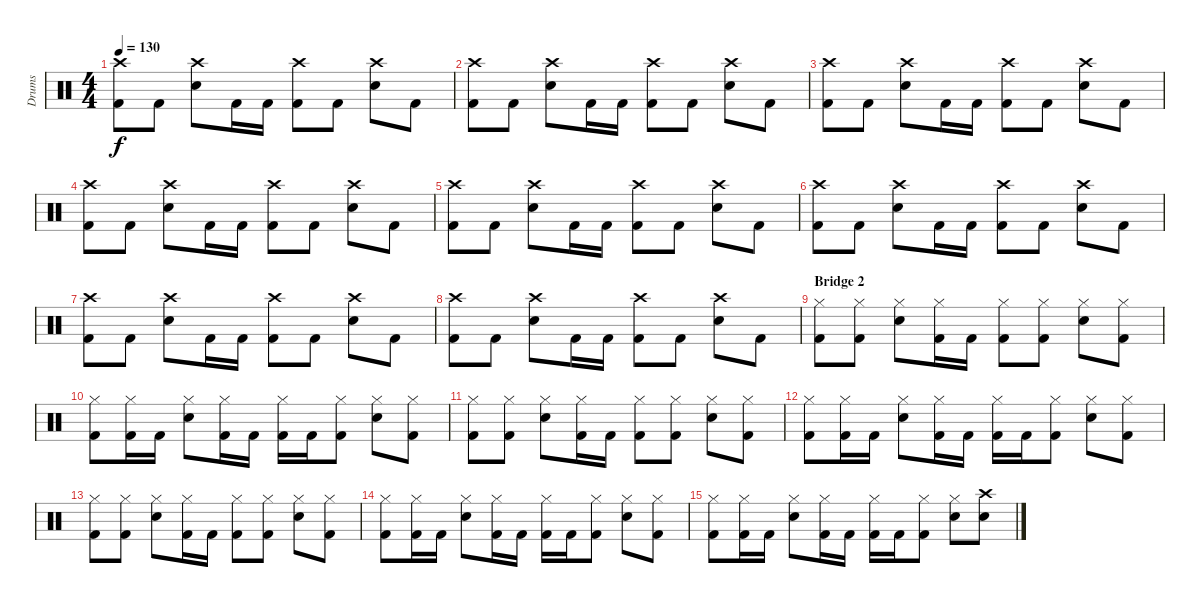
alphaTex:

\track ("Drums" "Drums") {instrument percussion}
\staff {score}
\articulation defaults
\ts (4 4)
\tempo 130
\clef neutral
\ks c
("Crash high (hit)" "Kick (hit) 2").8{dy f} "Kick (hit) 2".8 ("Crash high (hit)" "Electric Snare (hit)").8 "Kick (hit) 2".16 "Kick (hit) 2".16 ("Crash high (hit)" "Kick (hit) 2").8 "Kick (hit) 2".8 ("Crash high (hit)" "Electric Snare (hit)").8 "Kick (hit) 2".8 |
("Crash high (hit)" "Kick (hit) 2").8 "Kick (hit) 2".8 ("Crash high (hit)" "Electric Snare (hit)").8 "Kick (hit) 2".16 "Kick (hit) 2".16 ("Crash high (hit)" "Kick (hit) 2").8 "Kick (hit) 2".8 ("Crash high (hit)" "Electric Snare (hit)").8 "Kick (hit) 2".8 |
("Crash high (hit)" "Kick (hit) 2").8 "Kick (hit) 2".8 ("Crash high (hit)" "Electric Snare (hit)").8 "Kick (hit) 2".16 "Kick (hit) 2".16 ("Crash high (hit)" "Kick (hit) 2").8 "Kick (hit) 2".8 ("Crash high (hit)" "Electric Snare (hit)").8 "Kick (hit) 2".8 |
("Crash high (hit)" "Kick (hit) 2").8 "Kick (hit) 2".8 ("Crash high (hit)" "Electric Snare (hit)").8 "Kick (hit) 2".16 "Kick (hit) 2".16 ("Crash high (hit)" "Kick (hit) 2").8 "Kick (hit) 2".8 ("Crash high (hit)" "Electric Snare (hit)").8 "Kick (hit) 2".8 |
("Crash high (hit)" "Kick (hit) 2").8 "Kick (hit) 2".8 ("Crash high (hit)" "Electric Snare (hit)").8 "Kick (hit) 2".16 "Kick (hit) 2".16 ("Crash high (hit)" "Kick (hit) 2").8 "Kick (hit) 2".8 ("Crash high (hit)" "Electric Snare (hit)").8 "Kick (hit) 2".8 |
("Crash high (hit)" "Kick (hit) 2").8 "Kick (hit) 2".8 ("Crash high (hit)" "Electric Snare (hit)").8 "Kick (hit) 2".16 "Kick (hit) 2".16 ("Crash high (hit)" "Kick (hit) 2").8 "Kick (hit) 2".8 ("Crash high (hit)" "Electric Snare (hit)").8 "Kick (hit) 2".8 |
("Crash high (hit)" "Kick (hit) 2").8 "Kick (hit) 2".8 ("Crash high (hit)" "Electric Snare (hit)").8 "Kick (hit) 2".16 "Kick (hit) 2".16 ("Crash high (hit)" "Kick (hit) 2").8 "Kick (hit) 2".8 ("Crash high (hit)" "Electric Snare (hit)").8 "Kick (hit) 2".8 |
("Crash high (hit)" "Kick (hit) 2").8 "Kick (hit) 2".8 ("Crash high (hit)" "Electric Snare (hit)").8 "Kick (hit) 2".16 "Kick (hit) 2".16 ("Crash high (hit)" "Kick (hit) 2").8 "Kick (hit) 2".8 ("Crash high (hit)" "Electric Snare (hit)").8 "Kick (hit) 2".8 |
\section ("" "Bridge 2")
("Hi-Hat (closed)" "Kick (hit) 2").8 ("Hi-Hat (closed)" "Kick (hit) 2").8 ("Hi-Hat (closed)" "Electric Snare (hit)").8 ("Hi-Hat (closed)" "Kick (hit) 2").16 "Kick (hit) 2".16 ("Hi-Hat (closed)" "Kick (hit) 2").8 ("Hi-Hat (closed)" "Kick (hit) 2").8 ("Hi-Hat (closed)" "Electric Snare (hit)").8 ("Hi-Hat (closed)" "Kick (hit) 2").8 |
("Hi-Hat (closed)" "Kick (hit) 2").8 ("Hi-Hat (closed)" "Kick (hit) 2").16 "Kick (hit) 2".16 ("Hi-Hat (closed)" "Electric Snare (hit)").8 ("Hi-Hat (closed)" "Kick (hit) 2").16 "Kick (hit) 2".16 ("Hi-Hat (closed)" "Kick (hit) 2").16 "Kick (hit) 2".16 ("Hi-Hat (closed)" "Kick (hit) 2").8 ("Hi-Hat (closed)" "Electric Snare (hit)").8 ("Hi-Hat (closed)" "Kick (hit) 2").8 |
("Hi-Hat (closed)" "Kick (hit) 2").8 ("Hi-Hat (closed)" "Kick (hit) 2").8 ("Hi-Hat (closed)" "Electric Snare (hit)").8 ("Hi-Hat (closed)" "Kick (hit) 2").16 "Kick (hit) 2".16 ("Hi-Hat (closed)" "Kick (hit) 2").8 ("Hi-Hat (closed)" "Kick (hit) 2").8 ("Hi-Hat (closed)" "Electric Snare (hit)").8 ("Hi-Hat (closed)" "Kick (hit) 2").8 |
("Hi-Hat (closed)" "Kick (hit) 2").8 ("Hi-Hat (closed)" "Kick (hit) 2").16 "Kick (hit) 2".16 ("Hi-Hat (closed)" "Electric Snare (hit)").8 ("Hi-Hat (closed)" "Kick (hit) 2").16 "Kick (hit) 2".16 ("Hi-Hat (closed)" "Kick (hit) 2").16 "Kick (hit) 2".16 ("Hi-Hat (closed)" "Kick (hit) 2").8 ("Hi-Hat (closed)" "Electric Snare (hit)").8 ("Hi-Hat (closed)" "Kick (hit) 2").8 |
("Hi-Hat (closed)" "Kick (hit) 2").8 ("Hi-Hat (closed)" "Kick (hit) 2").8 ("Hi-Hat (closed)" "Electric Snare (hit)").8 ("Hi-Hat (closed)" "Kick (hit) 2").16 "Kick (hit) 2".16 ("Hi-Hat (closed)" "Kick (hit) 2").8 ("Hi-Hat (closed)" "Kick (hit) 2").8 ("Hi-Hat (closed)" "Electric Snare (hit)").8 ("Hi-Hat (closed)" "Kick (hit) 2").8 |
("Hi-Hat (closed)" "Kick (hit) 2").8 ("Hi-Hat (closed)" "Kick (hit) 2").16 "Kick (hit) 2".16 ("Hi-Hat (closed)" "Electric Snare (hit)").8 ("Hi-Hat (closed)" "Kick (hit) 2").16 "Kick (hit) 2".16 ("Hi-Hat (closed)" "Kick (hit) 2").16 "Kick (hit) 2".16 ("Hi-Hat (closed)" "Kick (hit) 2").8 ("Hi-Hat (closed)" "Electric Snare (hit)").8 ("Hi-Hat (closed)" "Kick (hit) 2").8 |
("Hi-Hat (closed)" "Kick (hit) 2").8 ("Hi-Hat (closed)" "Kick (hit) 2").16 "Kick (hit) 2".16 ("Hi-Hat (closed)" "Electric Snare (hit)").8 ("Hi-Hat (closed)" "Kick (hit) 2").16 "Kick (hit) 2".16 ("Hi-Hat (closed)" "Kick (hit) 2").16 "Kick (hit) 2".16 ("Hi-Hat (closed)" "Kick (hit) 2").8 ("Hi-Hat (closed)" "Electric Snare (hit)").8 ("Crash high (hit)" "Electric Snare (hit)").8
